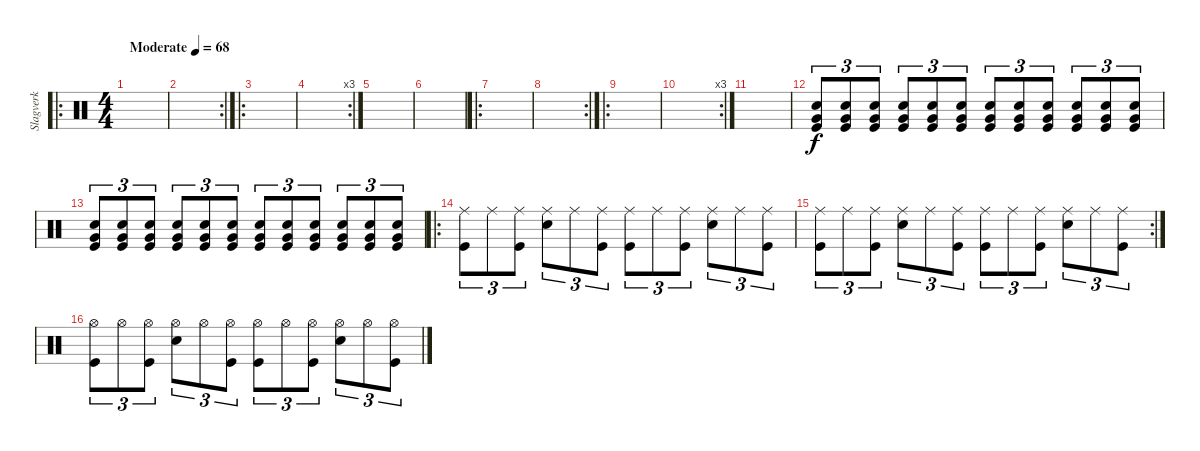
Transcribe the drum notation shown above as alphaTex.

\track ("Slagverk" "Slagverk") {instrument percussion}
\staff {score}
\articulation defaults
\ro
\ts (4 4)
\tempo (68 "Moderate")
\clef neutral
\ks c
|
\rc 2
|
\ro
|
\rc 3
|
|
|
\ro
|
\rc 2
|
\ro
|
\rc 3
|
|
("Kick (hit)" "Very Low Tom (hit)" "Snare (hit) 2").8{tu (3 2) volume 14} ("Kick (hit)" "Very Low Tom (hit)" "Snare (hit) 2").8{tu (3 2)} ("Kick (hit)" "Very Low Tom (hit)" "Snare (hit) 2").8{tu (3 2)} ("Kick (hit)" "Very Low Tom (hit)" "Snare (hit) 2").8{tu (3 2)} ("Kick (hit)" "Very Low Tom (hit)" "Snare (hit) 2").8{tu (3 2)} ("Kick (hit)" "Very Low Tom (hit)" "Snare (hit) 2").8{tu (3 2)} ("Kick (hit)" "Very Low Tom (hit)" "Snare (hit) 2").8{tu (3 2)} ("Kick (hit)" "Very Low Tom (hit)" "Snare (hit) 2").8{tu (3 2)} ("Kick (hit)" "Very Low Tom (hit)" "Snare (hit) 2").8{tu (3 2)} ("Kick (hit)" "Very Low Tom (hit)" "Snare (hit) 2").8{tu (3 2)} ("Kick (hit)" "Very Low Tom (hit)" "Snare (hit) 2").8{tu (3 2)} ("Kick (hit)" "Very Low Tom (hit)" "Snare (hit) 2").8{tu (3 2)} |
("Kick (hit)" "Very Low Tom (hit)" "Snare (hit) 2").8{tu (3 2)} ("Kick (hit)" "Very Low Tom (hit)" "Snare (hit) 2").8{tu (3 2)} ("Kick (hit)" "Very Low Tom (hit)" "Snare (hit) 2").8{tu (3 2)} ("Kick (hit)" "Very Low Tom (hit)" "Snare (hit) 2").8{tu (3 2)} ("Kick (hit)" "Very Low Tom (hit)" "Snare (hit) 2").8{tu (3 2)} ("Kick (hit)" "Very Low Tom (hit)" "Snare (hit) 2").8{tu (3 2)} ("Kick (hit)" "Very Low Tom (hit)" "Snare (hit) 2").8{tu (3 2)} ("Kick (hit)" "Very Low Tom (hit)" "Snare (hit) 2").8{tu (3 2)} ("Kick (hit)" "Very Low Tom (hit)" "Snare (hit) 2").8{tu (3 2)} ("Kick (hit)" "Very Low Tom (hit)" "Snare (hit) 2").8{tu (3 2)} ("Kick (hit)" "Very Low Tom (hit)" "Snare (hit) 2").8{tu (3 2)} ("Kick (hit)" "Very Low Tom (hit)" "Snare (hit) 2").8{tu (3 2)} |
\ro
("Ride (middle)" "Kick (hit)").8{tu (3 2)} "Ride (middle)".8{tu (3 2)} ("Ride (middle)" "Kick (hit)").8{tu (3 2)} ("Ride (middle)" "Snare (hit) 2").8{tu (3 2)} "Ride (middle)".8{tu (3 2)} ("Ride (middle)" "Kick (hit)").8{tu (3 2)} ("Ride (middle)" "Kick (hit)").8{tu (3 2)} "Ride (middle)".8{tu (3 2)} ("Ride (middle)" "Kick (hit)").8{tu (3 2)} ("Ride (middle)" "Snare (hit) 2").8{tu (3 2)} "Ride (middle)".8{tu (3 2)} ("Ride (middle)" "Kick (hit)").8{tu (3 2)} |
\rc 2
("Ride (middle)" "Kick (hit)").8{tu (3 2)} "Ride (middle)".8{tu (3 2)} ("Ride (middle)" "Kick (hit)").8{tu (3 2)} ("Ride (middle)" "Snare (hit) 2").8{tu (3 2)} "Ride (middle)".8{tu (3 2)} ("Ride (middle)" "Kick (hit)").8{tu (3 2)} ("Ride (middle)" "Kick (hit)").8{tu (3 2)} "Ride (middle)".8{tu (3 2)} ("Ride (middle)" "Kick (hit)").8{tu (3 2)} ("Ride (middle)" "Snare (hit) 2").8{tu (3 2)} "Ride (middle)".8{tu (3 2)} ("Ride (middle)" "Kick (hit)").8{tu (3 2)} |
("Hi-Hat (open)" "Kick (hit)").8{tu (3 2)} "Hi-Hat (open)".8{tu (3 2)} ("Hi-Hat (open)" "Kick (hit)").8{tu (3 2)} ("Hi-Hat (open)" "Snare (hit) 2").8{tu (3 2)} "Hi-Hat (open)".8{tu (3 2)} ("Hi-Hat (open)" "Kick (hit)").8{tu (3 2)} ("Hi-Hat (open)" "Kick (hit)").8{tu (3 2)} "Hi-Hat (open)".8{tu (3 2)} ("Hi-Hat (open)" "Kick (hit)").8{tu (3 2)} ("Hi-Hat (open)" "Snare (hit) 2").8{tu (3 2)} "Hi-Hat (open)".8{tu (3 2)} ("Hi-Hat (open)" "Kick (hit)").8{tu (3 2)}
